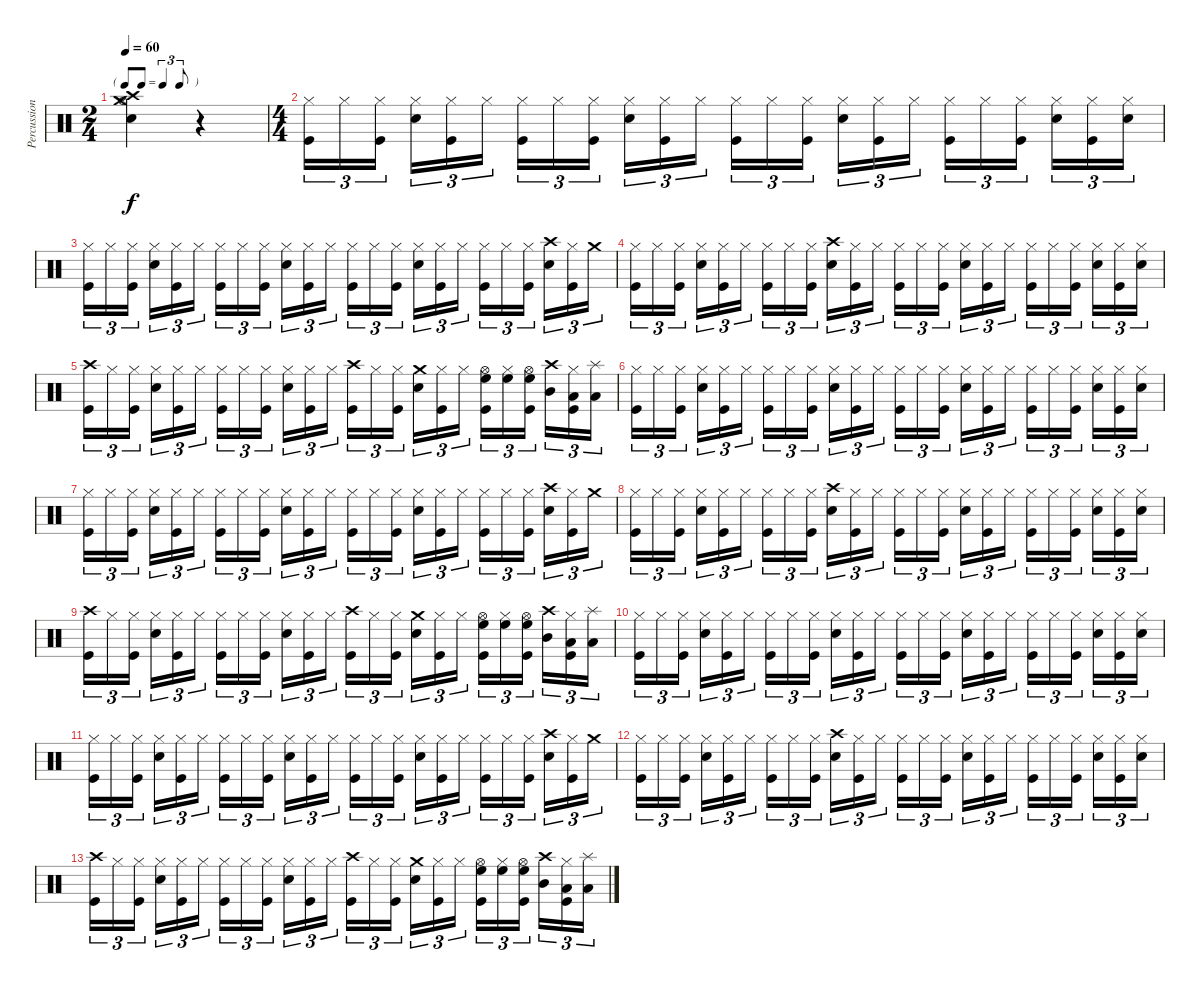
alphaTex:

\track ("Percussion" "Percussion") {instrument percussion}
\staff {score}
\articulation defaults
\ts (2 4)
\tf triplet8th
\tempo 60
\clef neutral
\ks c
("Snare (hit) 2" "Crash high (hit)" "Hi-Hat (open)" "Crash medium (hit)").4{dy f} r.4 |
\ts (4 4)
("Hi-Hat (closed)" "Kick (hit)").16{tu (3 2)} "Hi-Hat (closed)".16{tu (3 2)} ("Hi-Hat (closed)" "Kick (hit)").16{tu (3 2)} ("Hi-Hat (closed)" "Snare (hit) 2").16{tu (3 2)} ("Hi-Hat (closed)" "Kick (hit)").16{tu (3 2)} "Hi-Hat (closed)".16{tu (3 2)} ("Hi-Hat (closed)" "Kick (hit)").16{tu (3 2)} "Hi-Hat (closed)".16{tu (3 2)} ("Hi-Hat (closed)" "Kick (hit)").16{tu (3 2)} ("Hi-Hat (closed)" "Snare (hit) 2").16{tu (3 2)} ("Hi-Hat (closed)" "Kick (hit)").16{tu (3 2)} "Hi-Hat (closed)".16{tu (3 2)} ("Hi-Hat (closed)" "Kick (hit)").16{tu (3 2)} "Hi-Hat (closed)".16{tu (3 2)} ("Hi-Hat (closed)" "Kick (hit)").16{tu (3 2)} ("Hi-Hat (closed)" "Snare (hit) 2").16{tu (3 2)} ("Hi-Hat (closed)" "Kick (hit)").16{tu (3 2)} "Hi-Hat (closed)".16{tu (3 2)} ("Hi-Hat (closed)" "Kick (hit)").16{tu (3 2)} "Hi-Hat (closed)".16{tu (3 2)} ("Hi-Hat (closed)" "Kick (hit)").16{tu (3 2)} ("Hi-Hat (closed)" "Snare (hit) 2").16{tu (3 2)} ("Hi-Hat (closed)" "Kick (hit)").16{tu (3 2)} ("Hi-Hat (closed)" "Snare (hit) 2").16{tu (3 2)} |
("Hi-Hat (closed)" "Kick (hit)").16{tu (3 2)} "Hi-Hat (closed)".16{tu (3 2)} ("Hi-Hat (closed)" "Kick (hit)").16{tu (3 2)} ("Hi-Hat (closed)" "Snare (hit) 2").16{tu (3 2)} ("Hi-Hat (closed)" "Kick (hit)").16{tu (3 2)} "Hi-Hat (closed)".16{tu (3 2)} ("Hi-Hat (closed)" "Kick (hit)").16{tu (3 2)} "Hi-Hat (closed)".16{tu (3 2)} ("Hi-Hat (closed)" "Kick (hit)").16{tu (3 2)} ("Hi-Hat (closed)" "Snare (hit) 2").16{tu (3 2)} ("Hi-Hat (closed)" "Kick (hit)").16{tu (3 2)} "Hi-Hat (closed)".16{tu (3 2)} ("Hi-Hat (closed)" "Kick (hit)").16{tu (3 2)} "Hi-Hat (closed)".16{tu (3 2)} ("Hi-Hat (closed)" "Kick (hit)").16{tu (3 2)} ("Hi-Hat (closed)" "Snare (hit) 2").16{tu (3 2)} ("Hi-Hat (closed)" "Kick (hit)").16{tu (3 2)} "Hi-Hat (closed)".16{tu (3 2)} ("Hi-Hat (closed)" "Kick (hit)").16{tu (3 2)} "Hi-Hat (closed)".16{tu (3 2)} ("Hi-Hat (closed)" "Kick (hit)").16{tu (3 2)} ("Crash high (hit)" "Snare (hit) 2").16{tu (3 2)} ("Hi-Hat (closed)" "Kick (hit)").16{tu (3 2)} "Crash medium (hit)".16{tu (3 2)} |
("Hi-Hat (closed)" "Kick (hit)").16{tu (3 2)} "Hi-Hat (closed)".16{tu (3 2)} ("Hi-Hat (closed)" "Kick (hit)").16{tu (3 2)} ("Hi-Hat (closed)" "Snare (hit) 2").16{tu (3 2)} ("Hi-Hat (closed)" "Kick (hit)").16{tu (3 2)} "Hi-Hat (closed)".16{tu (3 2)} ("Hi-Hat (closed)" "Kick (hit)").16{tu (3 2)} "Hi-Hat (closed)".16{tu (3 2)} ("Hi-Hat (closed)" "Kick (hit)").16{tu (3 2)} ("Crash high (hit)" "Snare (hit) 2").16{tu (3 2)} ("Hi-Hat (closed)" "Kick (hit)").16{tu (3 2)} "Hi-Hat (closed)".16{tu (3 2)} ("Hi-Hat (closed)" "Kick (hit)").16{tu (3 2)} "Hi-Hat (closed)".16{tu (3 2)} ("Hi-Hat (closed)" "Kick (hit)").16{tu (3 2)} ("Hi-Hat (closed)" "Snare (hit) 2").16{tu (3 2)} ("Hi-Hat (closed)" "Kick (hit)").16{tu (3 2)} "Hi-Hat (closed)".16{tu (3 2)} ("Hi-Hat (closed)" "Kick (hit)").16{tu (3 2)} "Hi-Hat (closed)".16{tu (3 2)} ("Hi-Hat (closed)" "Kick (hit)").16{tu (3 2)} ("Hi-Hat (closed)" "Snare (hit) 2").16{tu (3 2)} ("Hi-Hat (closed)" "Kick (hit)").16{tu (3 2)} ("Hi-Hat (closed)" "Snare (hit) 2").16{tu (3 2)} |
("Crash high (hit)" "Kick (hit)").16{tu (3 2)} "Hi-Hat (closed)".16{tu (3 2)} ("Hi-Hat (closed)" "Kick (hit)").16{tu (3 2)} ("Hi-Hat (closed)" "Snare (hit) 2").16{tu (3 2)} ("Hi-Hat (closed)" "Kick (hit)").16{tu (3 2)} "Hi-Hat (closed)".16{tu (3 2)} ("Hi-Hat (closed)" "Kick (hit)").16{tu (3 2)} "Hi-Hat (closed)".16{tu (3 2)} ("Hi-Hat (closed)" "Kick (hit)").16{tu (3 2)} ("Hi-Hat (closed)" "Snare (hit) 2").16{tu (3 2)} ("Hi-Hat (closed)" "Kick (hit)").16{tu (3 2)} "Hi-Hat (closed)".16{tu (3 2)} ("Crash high (hit)" "Kick (hit)").16{tu (3 2)} "Hi-Hat (closed)".16{tu (3 2)} ("Hi-Hat (closed)" "Kick (hit)").16{tu (3 2)} ("Crash medium (hit)" "Snare (hit) 2").16{tu (3 2)} ("Hi-Hat (closed)" "Kick (hit)").16{tu (3 2)} "Hi-Hat (closed)".16{tu (3 2)} ("Hi-Hat (open)" "High Floor Tom (hit)" "Kick (hit)").16{tu (3 2)} ("Hi-Hat (closed)" "High Floor Tom (hit)").16{tu (3 2)} ("Hi-Hat (open)" "High Floor Tom (hit)" "Kick (hit)").16{tu (3 2)} ("Crash high (hit)" "Mid Tom (hit)").16{tu (3 2)} ("Hi-Hat (closed)" "Low Tom (hit)" "Kick (hit)").16{tu (3 2)} ("Splash (hit)" "Low Floor Tom (hit)").16{tu (3 2)} |
("Hi-Hat (closed)" "Kick (hit)").16{tu (3 2)} "Hi-Hat (closed)".16{tu (3 2)} ("Hi-Hat (closed)" "Kick (hit)").16{tu (3 2)} ("Hi-Hat (closed)" "Snare (hit) 2").16{tu (3 2)} ("Hi-Hat (closed)" "Kick (hit)").16{tu (3 2)} "Hi-Hat (closed)".16{tu (3 2)} ("Hi-Hat (closed)" "Kick (hit)").16{tu (3 2)} "Hi-Hat (closed)".16{tu (3 2)} ("Hi-Hat (closed)" "Kick (hit)").16{tu (3 2)} ("Hi-Hat (closed)" "Snare (hit) 2").16{tu (3 2)} ("Hi-Hat (closed)" "Kick (hit)").16{tu (3 2)} "Hi-Hat (closed)".16{tu (3 2)} ("Hi-Hat (closed)" "Kick (hit)").16{tu (3 2)} "Hi-Hat (closed)".16{tu (3 2)} ("Hi-Hat (closed)" "Kick (hit)").16{tu (3 2)} ("Hi-Hat (closed)" "Snare (hit) 2").16{tu (3 2)} ("Hi-Hat (closed)" "Kick (hit)").16{tu (3 2)} "Hi-Hat (closed)".16{tu (3 2)} ("Hi-Hat (closed)" "Kick (hit)").16{tu (3 2)} "Hi-Hat (closed)".16{tu (3 2)} ("Hi-Hat (closed)" "Kick (hit)").16{tu (3 2)} ("Hi-Hat (closed)" "Snare (hit) 2").16{tu (3 2)} ("Hi-Hat (closed)" "Kick (hit)").16{tu (3 2)} ("Hi-Hat (closed)" "Snare (hit) 2").16{tu (3 2)} |
("Hi-Hat (closed)" "Kick (hit)").16{tu (3 2)} "Hi-Hat (closed)".16{tu (3 2)} ("Hi-Hat (closed)" "Kick (hit)").16{tu (3 2)} ("Hi-Hat (closed)" "Snare (hit) 2").16{tu (3 2)} ("Hi-Hat (closed)" "Kick (hit)").16{tu (3 2)} "Hi-Hat (closed)".16{tu (3 2)} ("Hi-Hat (closed)" "Kick (hit)").16{tu (3 2)} "Hi-Hat (closed)".16{tu (3 2)} ("Hi-Hat (closed)" "Kick (hit)").16{tu (3 2)} ("Hi-Hat (closed)" "Snare (hit) 2").16{tu (3 2)} ("Hi-Hat (closed)" "Kick (hit)").16{tu (3 2)} "Hi-Hat (closed)".16{tu (3 2)} ("Hi-Hat (closed)" "Kick (hit)").16{tu (3 2)} "Hi-Hat (closed)".16{tu (3 2)} ("Hi-Hat (closed)" "Kick (hit)").16{tu (3 2)} ("Hi-Hat (closed)" "Snare (hit) 2").16{tu (3 2)} ("Hi-Hat (closed)" "Kick (hit)").16{tu (3 2)} "Hi-Hat (closed)".16{tu (3 2)} ("Hi-Hat (closed)" "Kick (hit)").16{tu (3 2)} "Hi-Hat (closed)".16{tu (3 2)} ("Hi-Hat (closed)" "Kick (hit)").16{tu (3 2)} ("Crash high (hit)" "Snare (hit) 2").16{tu (3 2)} ("Hi-Hat (closed)" "Kick (hit)").16{tu (3 2)} "Crash medium (hit)".16{tu (3 2)} |
("Hi-Hat (closed)" "Kick (hit)").16{tu (3 2)} "Hi-Hat (closed)".16{tu (3 2)} ("Hi-Hat (closed)" "Kick (hit)").16{tu (3 2)} ("Hi-Hat (closed)" "Snare (hit) 2").16{tu (3 2)} ("Hi-Hat (closed)" "Kick (hit)").16{tu (3 2)} "Hi-Hat (closed)".16{tu (3 2)} ("Hi-Hat (closed)" "Kick (hit)").16{tu (3 2)} "Hi-Hat (closed)".16{tu (3 2)} ("Hi-Hat (closed)" "Kick (hit)").16{tu (3 2)} ("Crash high (hit)" "Snare (hit) 2").16{tu (3 2)} ("Hi-Hat (closed)" "Kick (hit)").16{tu (3 2)} "Hi-Hat (closed)".16{tu (3 2)} ("Hi-Hat (closed)" "Kick (hit)").16{tu (3 2)} "Hi-Hat (closed)".16{tu (3 2)} ("Hi-Hat (closed)" "Kick (hit)").16{tu (3 2)} ("Hi-Hat (closed)" "Snare (hit) 2").16{tu (3 2)} ("Hi-Hat (closed)" "Kick (hit)").16{tu (3 2)} "Hi-Hat (closed)".16{tu (3 2)} ("Hi-Hat (closed)" "Kick (hit)").16{tu (3 2)} "Hi-Hat (closed)".16{tu (3 2)} ("Hi-Hat (closed)" "Kick (hit)").16{tu (3 2)} ("Hi-Hat (closed)" "Snare (hit) 2").16{tu (3 2)} ("Hi-Hat (closed)" "Kick (hit)").16{tu (3 2)} ("Hi-Hat (closed)" "Snare (hit) 2").16{tu (3 2)} |
("Crash high (hit)" "Kick (hit)").16{tu (3 2)} "Hi-Hat (closed)".16{tu (3 2)} ("Hi-Hat (closed)" "Kick (hit)").16{tu (3 2)} ("Hi-Hat (closed)" "Snare (hit) 2").16{tu (3 2)} ("Hi-Hat (closed)" "Kick (hit)").16{tu (3 2)} "Hi-Hat (closed)".16{tu (3 2)} ("Hi-Hat (closed)" "Kick (hit)").16{tu (3 2)} "Hi-Hat (closed)".16{tu (3 2)} ("Hi-Hat (closed)" "Kick (hit)").16{tu (3 2)} ("Hi-Hat (closed)" "Snare (hit) 2").16{tu (3 2)} ("Hi-Hat (closed)" "Kick (hit)").16{tu (3 2)} "Hi-Hat (closed)".16{tu (3 2)} ("Crash high (hit)" "Kick (hit)").16{tu (3 2)} "Hi-Hat (closed)".16{tu (3 2)} ("Hi-Hat (closed)" "Kick (hit)").16{tu (3 2)} ("Crash medium (hit)" "Snare (hit) 2").16{tu (3 2)} ("Hi-Hat (closed)" "Kick (hit)").16{tu (3 2)} "Hi-Hat (closed)".16{tu (3 2)} ("Hi-Hat (open)" "High Floor Tom (hit)" "Kick (hit)").16{tu (3 2)} ("Hi-Hat (closed)" "High Floor Tom (hit)").16{tu (3 2)} ("Hi-Hat (open)" "High Floor Tom (hit)" "Kick (hit)").16{tu (3 2)} ("Crash high (hit)" "Mid Tom (hit)").16{tu (3 2)} ("Hi-Hat (closed)" "Low Tom (hit)" "Kick (hit)").16{tu (3 2)} ("Splash (hit)" "Low Floor Tom (hit)").16{tu (3 2)} |
("Hi-Hat (closed)" "Kick (hit)").16{tu (3 2)} "Hi-Hat (closed)".16{tu (3 2)} ("Hi-Hat (closed)" "Kick (hit)").16{tu (3 2)} ("Hi-Hat (closed)" "Snare (hit) 2").16{tu (3 2)} ("Hi-Hat (closed)" "Kick (hit)").16{tu (3 2)} "Hi-Hat (closed)".16{tu (3 2)} ("Hi-Hat (closed)" "Kick (hit)").16{tu (3 2)} "Hi-Hat (closed)".16{tu (3 2)} ("Hi-Hat (closed)" "Kick (hit)").16{tu (3 2)} ("Hi-Hat (closed)" "Snare (hit) 2").16{tu (3 2)} ("Hi-Hat (closed)" "Kick (hit)").16{tu (3 2)} "Hi-Hat (closed)".16{tu (3 2)} ("Hi-Hat (closed)" "Kick (hit)").16{tu (3 2)} "Hi-Hat (closed)".16{tu (3 2)} ("Hi-Hat (closed)" "Kick (hit)").16{tu (3 2)} ("Hi-Hat (closed)" "Snare (hit) 2").16{tu (3 2)} ("Hi-Hat (closed)" "Kick (hit)").16{tu (3 2)} "Hi-Hat (closed)".16{tu (3 2)} ("Hi-Hat (closed)" "Kick (hit)").16{tu (3 2)} "Hi-Hat (closed)".16{tu (3 2)} ("Hi-Hat (closed)" "Kick (hit)").16{tu (3 2)} ("Hi-Hat (closed)" "Snare (hit) 2").16{tu (3 2)} ("Hi-Hat (closed)" "Kick (hit)").16{tu (3 2)} ("Hi-Hat (closed)" "Snare (hit) 2").16{tu (3 2)} |
("Hi-Hat (closed)" "Kick (hit)").16{tu (3 2)} "Hi-Hat (closed)".16{tu (3 2)} ("Hi-Hat (closed)" "Kick (hit)").16{tu (3 2)} ("Hi-Hat (closed)" "Snare (hit) 2").16{tu (3 2)} ("Hi-Hat (closed)" "Kick (hit)").16{tu (3 2)} "Hi-Hat (closed)".16{tu (3 2)} ("Hi-Hat (closed)" "Kick (hit)").16{tu (3 2)} "Hi-Hat (closed)".16{tu (3 2)} ("Hi-Hat (closed)" "Kick (hit)").16{tu (3 2)} ("Hi-Hat (closed)" "Snare (hit) 2").16{tu (3 2)} ("Hi-Hat (closed)" "Kick (hit)").16{tu (3 2)} "Hi-Hat (closed)".16{tu (3 2)} ("Hi-Hat (closed)" "Kick (hit)").16{tu (3 2)} "Hi-Hat (closed)".16{tu (3 2)} ("Hi-Hat (closed)" "Kick (hit)").16{tu (3 2)} ("Hi-Hat (closed)" "Snare (hit) 2").16{tu (3 2)} ("Hi-Hat (closed)" "Kick (hit)").16{tu (3 2)} "Hi-Hat (closed)".16{tu (3 2)} ("Hi-Hat (closed)" "Kick (hit)").16{tu (3 2)} "Hi-Hat (closed)".16{tu (3 2)} ("Hi-Hat (closed)" "Kick (hit)").16{tu (3 2)} ("Crash high (hit)" "Snare (hit) 2").16{tu (3 2)} ("Hi-Hat (closed)" "Kick (hit)").16{tu (3 2)} "Crash medium (hit)".16{tu (3 2)} |
("Hi-Hat (closed)" "Kick (hit)").16{tu (3 2)} "Hi-Hat (closed)".16{tu (3 2)} ("Hi-Hat (closed)" "Kick (hit)").16{tu (3 2)} ("Hi-Hat (closed)" "Snare (hit) 2").16{tu (3 2)} ("Hi-Hat (closed)" "Kick (hit)").16{tu (3 2)} "Hi-Hat (closed)".16{tu (3 2)} ("Hi-Hat (closed)" "Kick (hit)").16{tu (3 2)} "Hi-Hat (closed)".16{tu (3 2)} ("Hi-Hat (closed)" "Kick (hit)").16{tu (3 2)} ("Crash high (hit)" "Snare (hit) 2").16{tu (3 2)} ("Hi-Hat (closed)" "Kick (hit)").16{tu (3 2)} "Hi-Hat (closed)".16{tu (3 2)} ("Hi-Hat (closed)" "Kick (hit)").16{tu (3 2)} "Hi-Hat (closed)".16{tu (3 2)} ("Hi-Hat (closed)" "Kick (hit)").16{tu (3 2)} ("Hi-Hat (closed)" "Snare (hit) 2").16{tu (3 2)} ("Hi-Hat (closed)" "Kick (hit)").16{tu (3 2)} "Hi-Hat (closed)".16{tu (3 2)} ("Hi-Hat (closed)" "Kick (hit)").16{tu (3 2)} "Hi-Hat (closed)".16{tu (3 2)} ("Hi-Hat (closed)" "Kick (hit)").16{tu (3 2)} ("Hi-Hat (closed)" "Snare (hit) 2").16{tu (3 2)} ("Hi-Hat (closed)" "Kick (hit)").16{tu (3 2)} ("Hi-Hat (closed)" "Snare (hit) 2").16{tu (3 2)} |
("Crash high (hit)" "Kick (hit)").16{tu (3 2)} "Hi-Hat (closed)".16{tu (3 2)} ("Hi-Hat (closed)" "Kick (hit)").16{tu (3 2)} ("Hi-Hat (closed)" "Snare (hit) 2").16{tu (3 2)} ("Hi-Hat (closed)" "Kick (hit)").16{tu (3 2)} "Hi-Hat (closed)".16{tu (3 2)} ("Hi-Hat (closed)" "Kick (hit)").16{tu (3 2)} "Hi-Hat (closed)".16{tu (3 2)} ("Hi-Hat (closed)" "Kick (hit)").16{tu (3 2)} ("Hi-Hat (closed)" "Snare (hit) 2").16{tu (3 2)} ("Hi-Hat (closed)" "Kick (hit)").16{tu (3 2)} "Hi-Hat (closed)".16{tu (3 2)} ("Crash high (hit)" "Kick (hit)").16{tu (3 2)} "Hi-Hat (closed)".16{tu (3 2)} ("Hi-Hat (closed)" "Kick (hit)").16{tu (3 2)} ("Crash medium (hit)" "Snare (hit) 2").16{tu (3 2)} ("Hi-Hat (closed)" "Kick (hit)").16{tu (3 2)} "Hi-Hat (closed)".16{tu (3 2)} ("Hi-Hat (open)" "High Floor Tom (hit)" "Kick (hit)").16{tu (3 2)} ("Hi-Hat (closed)" "High Floor Tom (hit)").16{tu (3 2)} ("Hi-Hat (open)" "High Floor Tom (hit)" "Kick (hit)").16{tu (3 2)} ("Crash high (hit)" "Mid Tom (hit)").16{tu (3 2)} ("Hi-Hat (closed)" "Low Tom (hit)" "Kick (hit)").16{tu (3 2)} ("Splash (hit)" "Low Floor Tom (hit)").16{tu (3 2)}
